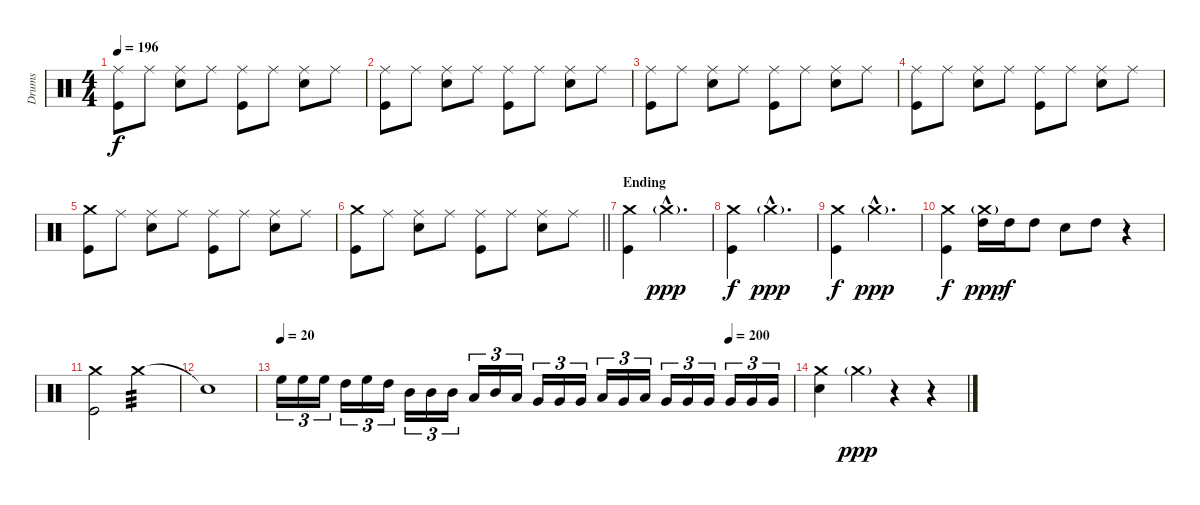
\track ("Drums" "Drums") {instrument percussion}
\staff {score}
\articulation defaults
\ts (4 4)
\tempo 196
\clef neutral
\ks c
("Ride (middle)" "Kick (hit)").8{dy f} "Ride (middle)".8 ("Ride (middle)" "Electric Snare (hit)").8 "Ride (middle)".8 ("Ride (middle)" "Kick (hit)").8 "Ride (middle)".8 ("Ride (middle)" "Electric Snare (hit)").8 "Ride (middle)".8 |
("Ride (middle)" "Kick (hit)").8 "Ride (middle)".8 ("Ride (middle)" "Electric Snare (hit)").8 "Ride (middle)".8 ("Ride (middle)" "Kick (hit)").8 "Ride (middle)".8 ("Ride (middle)" "Electric Snare (hit)").8 "Ride (middle)".8 |
("Ride (middle)" "Kick (hit)").8 "Ride (middle)".8 ("Ride (middle)" "Electric Snare (hit)").8 "Ride (middle)".8 ("Ride (middle)" "Kick (hit)").8 "Ride (middle)".8 ("Ride (middle)" "Electric Snare (hit)").8 "Ride (middle)".8 |
("Ride (middle)" "Kick (hit)").8 "Ride (middle)".8 ("Ride (middle)" "Electric Snare (hit)").8 "Ride (middle)".8 ("Ride (middle)" "Kick (hit)").8 "Ride (middle)".8 ("Ride (middle)" "Electric Snare (hit)").8 "Ride (middle)".8 |
("Crash medium (hit)" "Kick (hit)").8 "Ride (middle)".8 ("Ride (middle)" "Electric Snare (hit)").8 "Ride (middle)".8 ("Ride (middle)" "Kick (hit)").8 "Ride (middle)".8 ("Ride (middle)" "Electric Snare (hit)").8 "Ride (middle)".8 |
\barLineRight lightlight
("Crash medium (hit)" "Kick (hit)").8 "Ride (middle)".8 ("Ride (middle)" "Electric Snare (hit)").8 "Ride (middle)".8 ("Ride (middle)" "Kick (hit)").8 "Ride (middle)".8 ("Ride (middle)" "Electric Snare (hit)").8 "Ride (middle)".8 |
\section ("" "Ending")
("Crash medium (hit)" "Kick (hit)").4 "Crash medium (hit)"{g hac}.2{d dy ppp} |
("Crash medium (hit)" "Kick (hit)").4{dy f} "Crash medium (hit)"{g hac}.2{d dy ppp} |
("Crash medium (hit)" "Kick (hit)").4{dy f} "Crash medium (hit)"{g hac}.2{d dy ppp} |
("Crash medium (hit)" "Kick (hit)").4{dy f} ("Crash medium (hit)"{g} "High Tom (hit)").16{dy ppp} "High Tom (hit)".16{dy f} "High Tom (hit)".8 "Electric Snare (hit)".8 "High Tom (hit)".8 r.4 |
("Crash medium (hit)" "Kick (hit)").2 "Crash medium (hit)".2{tp 3} |
"Snare (hit)"{t}.1 |
\tempo 20
\tempo (200 0.875)
"High Floor Tom (hit)".16{tu (3 2)} "High Floor Tom (hit)".16{tu (3 2)} "High Floor Tom (hit)".16{tu (3 2)} "High Tom (hit)".16{tu (3 2)} "High Floor Tom (hit)".16{tu (3 2)} "High Tom (hit)".16{tu (3 2)} "Mid Tom (hit)".16{tu (3 2)} "Mid Tom (hit)".16{tu (3 2)} "Mid Tom (hit)".16{tu (3 2)} "Low Tom (hit)".16{tu (3 2)} "Mid Tom (hit)".16{tu (3 2)} "Low Tom (hit)".16{tu (3 2)} "Very Low Tom (hit)".16{tu (3 2)} "Very Low Tom (hit)".16{tu (3 2)} "Very Low Tom (hit)".16{tu (3 2)} "Low Floor Tom (hit)".16{tu (3 2)} "Very Low Tom (hit)".16{tu (3 2)} "Low Floor Tom (hit)".16{tu (3 2)} "Very Low Tom (hit)".16{tu (3 2)} "Very Low Tom (hit)".16{tu (3 2)} "Very Low Tom (hit)".16{tu (3 2)} "Very Low Tom (hit)".16{tu (3 2)} "Very Low Tom (hit)".16{tu (3 2)} "Very Low Tom (hit)".16{tu (3 2)} |
("Crash medium (hit)" "Electric Snare (hit)").4 "Crash medium (hit)"{g}.4{dy ppp} r.4 r.4
